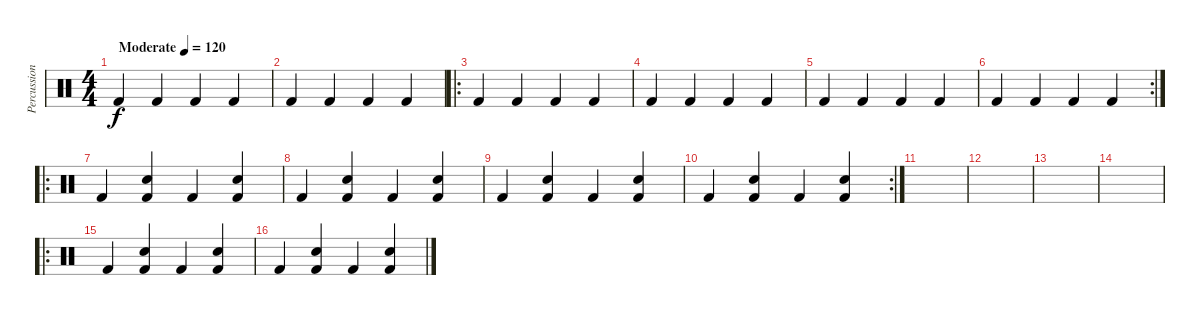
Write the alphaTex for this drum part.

\track ("Percussion" "Percussion") {instrument percussion}
\staff {score}
\articulation defaults
\ts (4 4)
\tempo (120 "Moderate")
\clef neutral
\ks c "Kick (hit) 2".4{dy f} "Kick (hit) 2".4 "Kick (hit) 2".4 "Kick (hit) 2".4
|
"Kick (hit) 2".4 "Kick (hit) 2".4 "Kick (hit) 2".4 "Kick (hit) 2".4 |
\ro "Kick (hit) 2".4 "Kick (hit) 2".4 "Kick (hit) 2".4 "Kick (hit) 2".4
|
"Kick (hit) 2".4 "Kick (hit) 2".4 "Kick (hit) 2".4 "Kick (hit) 2".4 |
"Kick (hit) 2".4 "Kick (hit) 2".4 "Kick (hit) 2".4 "Kick (hit) 2".4 |
\rc 2 "Kick (hit) 2".4 "Kick (hit) 2".4 "Kick (hit) 2".4 "Kick (hit) 2".4
|
\ro "Kick (hit) 2".4
("Kick (hit) 2" "Snare (hit) 2").4 "Kick (hit) 2".4 ("Kick (hit) 2" "Snare (hit) 2").4 |
"Kick (hit) 2".4 ("Kick (hit) 2" "Snare (hit) 2").4 "Kick (hit) 2".4 ("Kick (hit) 2" "Snare (hit) 2").4 |
"Kick (hit) 2".4 ("Kick (hit) 2" "Snare (hit) 2").4 "Kick (hit) 2".4 ("Kick (hit) 2" "Snare (hit) 2").4 |
\rc 2 "Kick (hit) 2".4
("Kick (hit) 2" "Snare (hit) 2").4 "Kick (hit) 2".4 ("Kick (hit) 2" "Snare (hit) 2").4 |
|
|
|
|
\ro "Kick (hit) 2".4
("Kick (hit) 2" "Snare (hit) 2").4 "Kick (hit) 2".4 ("Kick (hit) 2" "Snare (hit) 2").4 |
"Kick (hit) 2".4 ("Kick (hit) 2" "Snare (hit) 2").4 "Kick (hit) 2".4 ("Kick (hit) 2" "Snare (hit) 2").4
